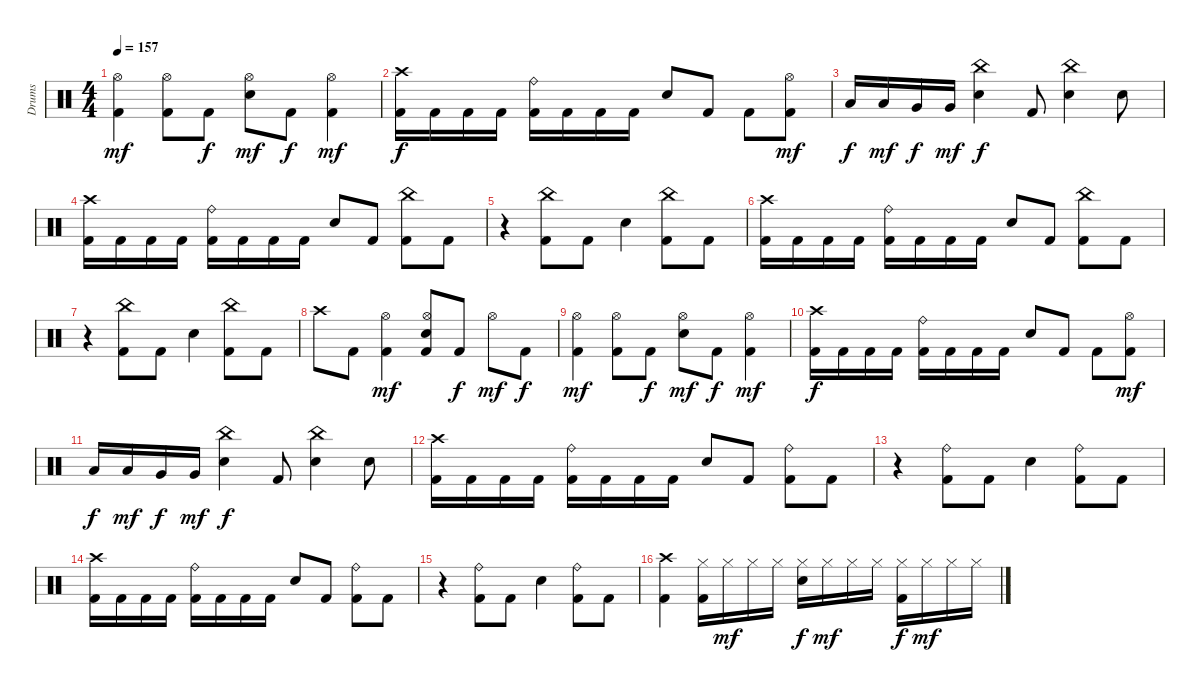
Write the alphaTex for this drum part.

\track ("Drums" "Drums") {instrument percussion}
\staff {score}
\articulation defaults
\ts (4 4)
\tempo 157
\clef neutral
\ks c
("Kick (hit) 2" "Hi-Hat (open)").4{dy mf} ("Kick (hit) 2" "Hi-Hat (open)").8 "Kick (hit) 2".8{dy f} ("Hi-Hat (open)" "Electric Snare (hit)").8{dy mf} "Kick (hit) 2".8{dy f} ("Kick (hit) 2" "Hi-Hat (open)").4{dy mf} |
("Kick (hit) 2" "Crash high (hit)").16{dy f} "Kick (hit) 2".16 "Kick (hit) 2".16 "Kick (hit) 2".16 ("Kick (hit) 2" "Ride (bell)").16 "Kick (hit) 2".16 "Kick (hit) 2".16 "Kick (hit) 2".16 "Electric Snare (hit)".8 "Kick (hit) 2".8 "Kick (hit) 2".8 ("Kick (hit) 2" "Hi-Hat (open)").8{dy mf} |
"Low Tom (hit)".16{dy f} "Low Tom (hit)".16{dy mf} "Very Low Tom (hit)".16{dy f} "Very Low Tom (hit)".16{dy mf} ("China (hit)" "Electric Snare (hit)").4{dy f} "Kick (hit) 2".8 ("China (hit)" "Electric Snare (hit)").4 "Electric Snare (hit)".8 |
("Kick (hit) 2" "Crash high (hit)").16 "Kick (hit) 2".16 "Kick (hit) 2".16 "Kick (hit) 2".16 ("Kick (hit) 2" "Ride (bell)").16 "Kick (hit) 2".16 "Kick (hit) 2".16 "Kick (hit) 2".16 "Electric Snare (hit)".8 "Kick (hit) 2".8 ("Kick (hit) 2" "China (hit)").8 "Kick (hit) 2".8 |
r.4 ("Kick (hit) 2" "China (hit)").8 "Kick (hit) 2".8 "Electric Snare (hit)".4 ("Kick (hit) 2" "China (hit)").8 "Kick (hit) 2".8 |
("Kick (hit) 2" "Crash high (hit)").16 "Kick (hit) 2".16 "Kick (hit) 2".16 "Kick (hit) 2".16 ("Kick (hit) 2" "Ride (bell)").16 "Kick (hit) 2".16 "Kick (hit) 2".16 "Kick (hit) 2".16 "Electric Snare (hit)".8 "Kick (hit) 2".8 ("Kick (hit) 2" "China (hit)").8 "Kick (hit) 2".8 |
r.4 ("Kick (hit) 2" "China (hit)").8 "Kick (hit) 2".8 "Electric Snare (hit)".4 ("Kick (hit) 2" "China (hit)").8 "Kick (hit) 2".8 |
"Crash high (hit)".8 "Kick (hit) 2".8 ("Kick (hit) 2" "Hi-Hat (open)").4{dy mf} ("Kick (hit) 2" "Hi-Hat (open)" "Electric Snare (hit)").8 "Kick (hit) 2".8{dy f} "Hi-Hat (open)".8{dy mf} "Kick (hit) 2".8{dy f} |
("Kick (hit) 2" "Hi-Hat (open)").4{dy mf} ("Kick (hit) 2" "Hi-Hat (open)").8 "Kick (hit) 2".8{dy f} ("Hi-Hat (open)" "Electric Snare (hit)").8{dy mf} "Kick (hit) 2".8{dy f} ("Kick (hit) 2" "Hi-Hat (open)").4{dy mf} |
("Kick (hit) 2" "Crash high (hit)").16{dy f} "Kick (hit) 2".16 "Kick (hit) 2".16 "Kick (hit) 2".16 ("Kick (hit) 2" "Ride (bell)").16 "Kick (hit) 2".16 "Kick (hit) 2".16 "Kick (hit) 2".16 "Electric Snare (hit)".8 "Kick (hit) 2".8 "Kick (hit) 2".8 ("Kick (hit) 2" "Hi-Hat (open)").8{dy mf} |
"Low Tom (hit)".16{dy f} "Low Tom (hit)".16{dy mf} "Very Low Tom (hit)".16{dy f} "Very Low Tom (hit)".16{dy mf} ("China (hit)" "Electric Snare (hit)").4{dy f} "Kick (hit) 2".8 ("China (hit)" "Electric Snare (hit)").4 "Electric Snare (hit)".8 |
("Kick (hit) 2" "Crash high (hit)").16 "Kick (hit) 2".16 "Kick (hit) 2".16 "Kick (hit) 2".16 ("Kick (hit) 2" "Ride (bell)").16 "Kick (hit) 2".16 "Kick (hit) 2".16 "Kick (hit) 2".16 "Electric Snare (hit)".8 "Kick (hit) 2".8 ("Kick (hit) 2" "Ride (bell)").8 "Kick (hit) 2".8 |
r.4 ("Kick (hit) 2" "Ride (bell)").8 "Kick (hit) 2".8 "Electric Snare (hit)".4 ("Kick (hit) 2" "Ride (bell)").8 "Kick (hit) 2".8 |
("Kick (hit) 2" "Crash high (hit)").16 "Kick (hit) 2".16 "Kick (hit) 2".16 "Kick (hit) 2".16 ("Kick (hit) 2" "Ride (bell)").16 "Kick (hit) 2".16 "Kick (hit) 2".16 "Kick (hit) 2".16 "Electric Snare (hit)".8 "Kick (hit) 2".8 ("Kick (hit) 2" "Ride (bell)").8 "Kick (hit) 2".8 |
r.4 ("Kick (hit) 2" "Ride (bell)").8 "Kick (hit) 2".8 "Electric Snare (hit)".4 ("Kick (hit) 2" "Ride (bell)").8 "Kick (hit) 2".8 |
("Kick (hit) 2" "Crash high (hit)").4 ("Kick (hit) 2" "Hi-Hat (closed)").16 "Hi-Hat (closed)".16{dy mf} "Hi-Hat (closed)".16 "Hi-Hat (closed)".16 ("Hi-Hat (closed)" "Electric Snare (hit)").16{dy f} "Hi-Hat (closed)".16{dy mf} "Hi-Hat (closed)".16 "Hi-Hat (closed)".16 ("Kick (hit) 2" "Hi-Hat (closed)").16{dy f} "Hi-Hat (closed)".16{dy mf} "Hi-Hat (closed)".16 "Hi-Hat (closed)".16
